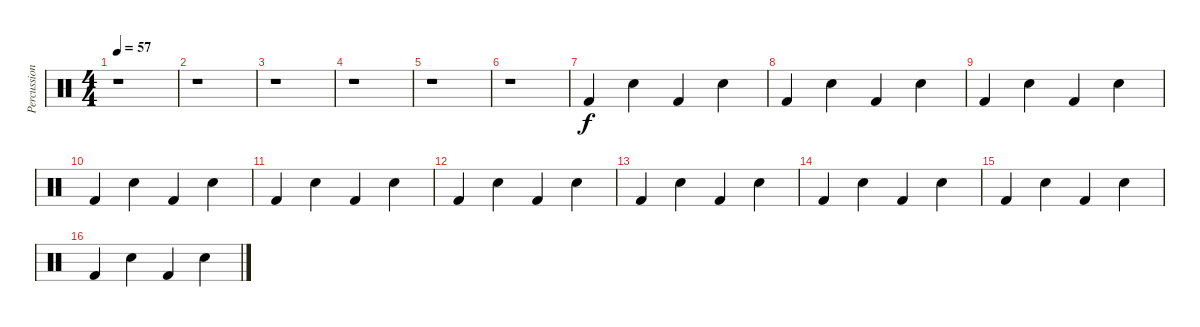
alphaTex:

\track ("Percussions" "Percussion") {instrument percussion}
\staff {score}
\articulation defaults
\ts (4 4)
\tempo 57
\clef neutral
\ks c
r.1{dy f} |
r.1 |
r.1 |
r.1 |
r.1 |
r.1 |
"Kick (hit) 2".4 "Snare (hit) 2".4 "Kick (hit) 2".4 "Snare (hit) 2".4 |
"Kick (hit) 2".4 "Snare (hit) 2".4 "Kick (hit) 2".4 "Snare (hit) 2".4 |
"Kick (hit) 2".4 "Snare (hit) 2".4 "Kick (hit) 2".4 "Snare (hit) 2".4 |
"Kick (hit) 2".4 "Snare (hit) 2".4 "Kick (hit) 2".4 "Snare (hit) 2".4 |
"Kick (hit) 2".4 "Snare (hit) 2".4 "Kick (hit) 2".4 "Snare (hit) 2".4 |
"Kick (hit) 2".4 "Snare (hit) 2".4 "Kick (hit) 2".4 "Snare (hit) 2".4 |
"Kick (hit) 2".4 "Snare (hit) 2".4 "Kick (hit) 2".4 "Snare (hit) 2".4 |
"Kick (hit) 2".4 "Snare (hit) 2".4 "Kick (hit) 2".4 "Snare (hit) 2".4 |
"Kick (hit) 2".4 "Snare (hit) 2".4 "Kick (hit) 2".4 "Snare (hit) 2".4 |
"Kick (hit) 2".4 "Snare (hit) 2".4 "Kick (hit) 2".4 "Snare (hit) 2".4
